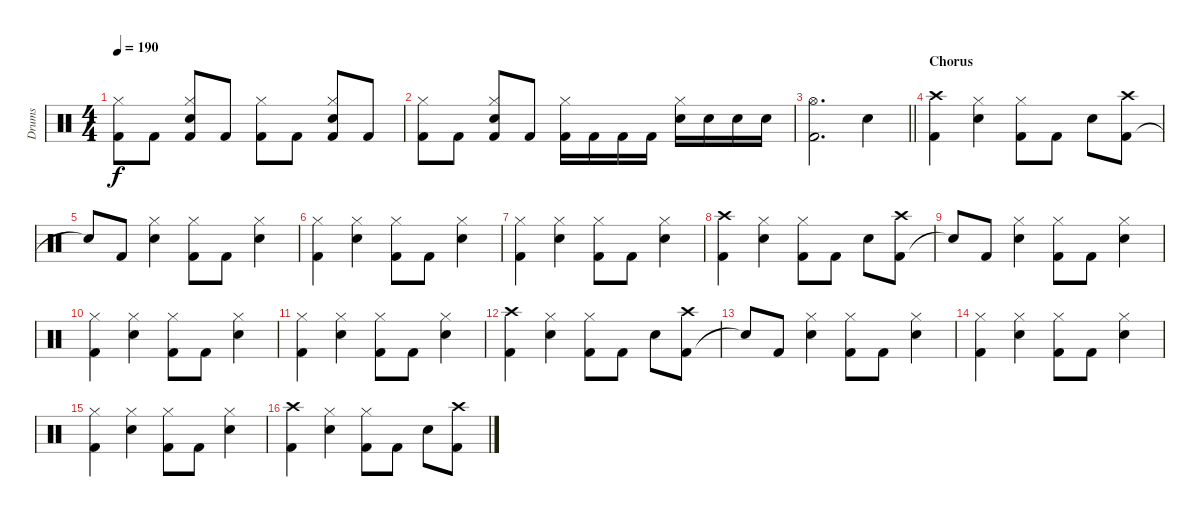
\track ("Drums" "Drums") {instrument percussion}
\staff {score}
\articulation defaults
\ts (4 4)
\tempo 190
\clef neutral
\ks c
("Kick (hit) 2" "Hi-Hat (closed)").8{dy f} "Kick (hit) 2".8 ("Kick (hit) 2" "Snare (hit) 2" "Hi-Hat (closed)").8 "Kick (hit) 2".8 ("Kick (hit) 2" "Hi-Hat (closed)").8 "Kick (hit) 2".8 ("Kick (hit) 2" "Snare (hit) 2" "Hi-Hat (closed)").8 "Kick (hit) 2".8 |
("Kick (hit) 2" "Hi-Hat (closed)").8 "Kick (hit) 2".8 ("Kick (hit) 2" "Snare (hit) 2" "Hi-Hat (closed)").8 "Kick (hit) 2".8 ("Kick (hit) 2" "Hi-Hat (closed)").16 "Kick (hit) 2".16 "Kick (hit) 2".16 "Kick (hit) 2".16 ("Snare (hit) 2" "Hi-Hat (closed)").16 "Snare (hit) 2".16 "Snare (hit) 2".16 "Snare (hit) 2".16 |
\barLineRight lightlight
("Kick (hit) 2" "Hi-Hat (open)").2{d} "Snare (hit) 2".4 |
\section ("" "Chorus")
("Kick (hit) 2" "Crash high (hit)").4 ("Snare (hit) 2" "Hi-Hat (closed)").4 ("Kick (hit) 2" "Hi-Hat (closed)").8 "Kick (hit) 2".8 "Snare (hit) 2".8 ("Kick (hit) 2" "Crash high (hit)").8 |
"Snare (hit)"{t}.8 "Kick (hit) 2".8 ("Snare (hit) 2" "Hi-Hat (closed)").4 ("Kick (hit) 2" "Hi-Hat (closed)").8 "Kick (hit) 2".8 ("Snare (hit) 2" "Hi-Hat (closed)").4 |
("Kick (hit) 2" "Hi-Hat (closed)").4 ("Snare (hit) 2" "Hi-Hat (closed)").4 ("Kick (hit) 2" "Hi-Hat (closed)").8 "Kick (hit) 2".8 ("Snare (hit) 2" "Hi-Hat (closed)").4 |
("Kick (hit) 2" "Hi-Hat (closed)").4 ("Snare (hit) 2" "Hi-Hat (closed)").4 ("Kick (hit) 2" "Hi-Hat (closed)").8 "Kick (hit) 2".8 ("Snare (hit) 2" "Hi-Hat (closed)").4 |
("Kick (hit) 2" "Crash high (hit)").4 ("Snare (hit) 2" "Hi-Hat (closed)").4 ("Kick (hit) 2" "Hi-Hat (closed)").8 "Kick (hit) 2".8 "Snare (hit) 2".8 ("Kick (hit) 2" "Crash high (hit)").8 |
"Snare (hit)"{t}.8 "Kick (hit) 2".8 ("Snare (hit) 2" "Hi-Hat (closed)").4 ("Kick (hit) 2" "Hi-Hat (closed)").8 "Kick (hit) 2".8 ("Snare (hit) 2" "Hi-Hat (closed)").4 |
("Kick (hit) 2" "Hi-Hat (closed)").4 ("Snare (hit) 2" "Hi-Hat (closed)").4 ("Kick (hit) 2" "Hi-Hat (closed)").8 "Kick (hit) 2".8 ("Snare (hit) 2" "Hi-Hat (closed)").4 |
("Kick (hit) 2" "Hi-Hat (closed)").4 ("Snare (hit) 2" "Hi-Hat (closed)").4 ("Kick (hit) 2" "Hi-Hat (closed)").8 "Kick (hit) 2".8 ("Snare (hit) 2" "Hi-Hat (closed)").4 |
("Kick (hit) 2" "Crash high (hit)").4 ("Snare (hit) 2" "Hi-Hat (closed)").4 ("Kick (hit) 2" "Hi-Hat (closed)").8 "Kick (hit) 2".8 "Snare (hit) 2".8 ("Kick (hit) 2" "Crash high (hit)").8 |
"Snare (hit)"{t}.8 "Kick (hit) 2".8 ("Snare (hit) 2" "Hi-Hat (closed)").4 ("Kick (hit) 2" "Hi-Hat (closed)").8 "Kick (hit) 2".8 ("Snare (hit) 2" "Hi-Hat (closed)").4 |
("Kick (hit) 2" "Hi-Hat (closed)").4 ("Snare (hit) 2" "Hi-Hat (closed)").4 ("Kick (hit) 2" "Hi-Hat (closed)").8 "Kick (hit) 2".8 ("Snare (hit) 2" "Hi-Hat (closed)").4 |
("Kick (hit) 2" "Hi-Hat (closed)").4 ("Snare (hit) 2" "Hi-Hat (closed)").4 ("Kick (hit) 2" "Hi-Hat (closed)").8 "Kick (hit) 2".8 ("Snare (hit) 2" "Hi-Hat (closed)").4 |
("Kick (hit) 2" "Crash high (hit)").4 ("Snare (hit) 2" "Hi-Hat (closed)").4 ("Kick (hit) 2" "Hi-Hat (closed)").8 "Kick (hit) 2".8 "Snare (hit) 2".8 ("Kick (hit) 2" "Crash high (hit)").8
